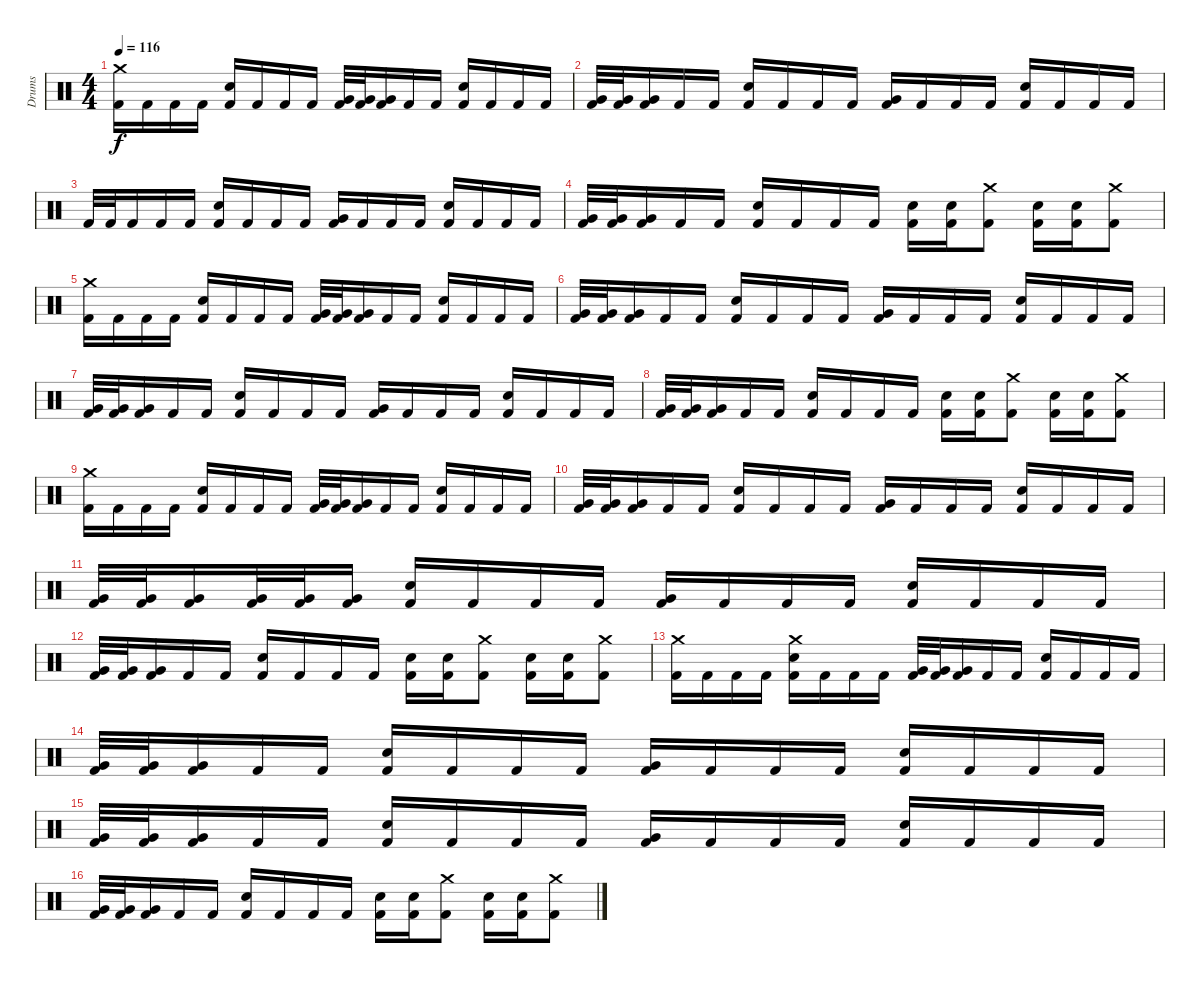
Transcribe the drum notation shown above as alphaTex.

\track ("Drums" "Drums") {instrument percussion}
\staff {score}
\articulation defaults
\ts (4 4)
\tempo 116
\clef neutral
\ks c
("Crash medium (hit)" "Kick (hit) 2").16{dy f} "Kick (hit) 2".16 "Kick (hit) 2".16 "Kick (hit) 2".16 ("Electric Snare (hit)" "Kick (hit) 2").16 "Kick (hit) 2".16 "Kick (hit) 2".16 "Kick (hit) 2".16 ("Very Low Tom (hit)" "Kick (hit) 2").32 ("Very Low Tom (hit)" "Kick (hit) 2").32 ("Very Low Tom (hit)" "Kick (hit) 2").16 "Kick (hit) 2".16 "Kick (hit) 2".16 ("Electric Snare (hit)" "Kick (hit) 2").16 "Kick (hit) 2".16 "Kick (hit) 2".16 "Kick (hit) 2".16 |
("Very Low Tom (hit)" "Kick (hit) 2").32 ("Very Low Tom (hit)" "Kick (hit) 2").32 ("Very Low Tom (hit)" "Kick (hit) 2").16 "Kick (hit) 2".16 "Kick (hit) 2".16 ("Electric Snare (hit)" "Kick (hit) 2").16 "Kick (hit) 2".16 "Kick (hit) 2".16 "Kick (hit) 2".16 ("Very Low Tom (hit)" "Kick (hit) 2").16 "Kick (hit) 2".16 "Kick (hit) 2".16 "Kick (hit) 2".16 ("Electric Snare (hit)" "Kick (hit) 2").16 "Kick (hit) 2".16 "Kick (hit) 2".16 "Kick (hit) 2".16 |
"Kick (hit) 2".32 "Kick (hit) 2".32 "Kick (hit) 2".16 "Kick (hit) 2".16 "Kick (hit) 2".16 ("Electric Snare (hit)" "Kick (hit) 2").16 "Kick (hit) 2".16 "Kick (hit) 2".16 "Kick (hit) 2".16 ("Very Low Tom (hit)" "Kick (hit) 2").16 "Kick (hit) 2".16 "Kick (hit) 2".16 "Kick (hit) 2".16 ("Electric Snare (hit)" "Kick (hit) 2").16 "Kick (hit) 2".16 "Kick (hit) 2".16 "Kick (hit) 2".16 |
("Very Low Tom (hit)" "Kick (hit) 2").32 ("Very Low Tom (hit)" "Kick (hit) 2").32 ("Very Low Tom (hit)" "Kick (hit) 2").16 "Kick (hit) 2".16 "Kick (hit) 2".16 ("Electric Snare (hit)" "Kick (hit) 2").16 "Kick (hit) 2".16 "Kick (hit) 2".16 "Kick (hit) 2".16 ("Electric Snare (hit)" "Kick (hit) 2").16 ("Electric Snare (hit)" "Kick (hit) 2").16 ("Crash medium (hit)" "Kick (hit) 2").8 ("Electric Snare (hit)" "Kick (hit) 2").16 ("Electric Snare (hit)" "Kick (hit) 2").16 ("Crash medium (hit)" "Kick (hit) 2").8 |
("Crash medium (hit)" "Kick (hit) 2").16 "Kick (hit) 2".16 "Kick (hit) 2".16 "Kick (hit) 2".16 ("Electric Snare (hit)" "Kick (hit) 2").16 "Kick (hit) 2".16 "Kick (hit) 2".16 "Kick (hit) 2".16 ("Very Low Tom (hit)" "Kick (hit) 2").32 ("Very Low Tom (hit)" "Kick (hit) 2").32 ("Very Low Tom (hit)" "Kick (hit) 2").16 "Kick (hit) 2".16 "Kick (hit) 2".16 ("Electric Snare (hit)" "Kick (hit) 2").16 "Kick (hit) 2".16 "Kick (hit) 2".16 "Kick (hit) 2".16 |
("Very Low Tom (hit)" "Kick (hit) 2").32 ("Very Low Tom (hit)" "Kick (hit) 2").32 ("Very Low Tom (hit)" "Kick (hit) 2").16 "Kick (hit) 2".16 "Kick (hit) 2".16 ("Electric Snare (hit)" "Kick (hit) 2").16 "Kick (hit) 2".16 "Kick (hit) 2".16 "Kick (hit) 2".16 ("Very Low Tom (hit)" "Kick (hit) 2").16 "Kick (hit) 2".16 "Kick (hit) 2".16 "Kick (hit) 2".16 ("Electric Snare (hit)" "Kick (hit) 2").16 "Kick (hit) 2".16 "Kick (hit) 2".16 "Kick (hit) 2".16 |
("Very Low Tom (hit)" "Kick (hit) 2").32 ("Very Low Tom (hit)" "Kick (hit) 2").32 ("Very Low Tom (hit)" "Kick (hit) 2").16 "Kick (hit) 2".16 "Kick (hit) 2".16 ("Electric Snare (hit)" "Kick (hit) 2").16 "Kick (hit) 2".16 "Kick (hit) 2".16 "Kick (hit) 2".16 ("Very Low Tom (hit)" "Kick (hit) 2").16 "Kick (hit) 2".16 "Kick (hit) 2".16 "Kick (hit) 2".16 ("Electric Snare (hit)" "Kick (hit) 2").16 "Kick (hit) 2".16 "Kick (hit) 2".16 "Kick (hit) 2".16 |
("Very Low Tom (hit)" "Kick (hit) 2").32 ("Very Low Tom (hit)" "Kick (hit) 2").32 ("Very Low Tom (hit)" "Kick (hit) 2").16 "Kick (hit) 2".16 "Kick (hit) 2".16 ("Electric Snare (hit)" "Kick (hit) 2").16 "Kick (hit) 2".16 "Kick (hit) 2".16 "Kick (hit) 2".16 ("Electric Snare (hit)" "Kick (hit) 2").16 ("Electric Snare (hit)" "Kick (hit) 2").16 ("Crash medium (hit)" "Kick (hit) 2").8 ("Electric Snare (hit)" "Kick (hit) 2").16 ("Electric Snare (hit)" "Kick (hit) 2").16 ("Crash medium (hit)" "Kick (hit) 2").8 |
("Crash medium (hit)" "Kick (hit) 2").16 "Kick (hit) 2".16 "Kick (hit) 2".16 "Kick (hit) 2".16 ("Electric Snare (hit)" "Kick (hit) 2").16 "Kick (hit) 2".16 "Kick (hit) 2".16 "Kick (hit) 2".16 ("Very Low Tom (hit)" "Kick (hit) 2").32 ("Very Low Tom (hit)" "Kick (hit) 2").32 ("Very Low Tom (hit)" "Kick (hit) 2").16 "Kick (hit) 2".16 "Kick (hit) 2".16 ("Electric Snare (hit)" "Kick (hit) 2").16 "Kick (hit) 2".16 "Kick (hit) 2".16 "Kick (hit) 2".16 |
("Very Low Tom (hit)" "Kick (hit) 2").32 ("Very Low Tom (hit)" "Kick (hit) 2").32 ("Very Low Tom (hit)" "Kick (hit) 2").16 "Kick (hit) 2".16 "Kick (hit) 2".16 ("Electric Snare (hit)" "Kick (hit) 2").16 "Kick (hit) 2".16 "Kick (hit) 2".16 "Kick (hit) 2".16 ("Very Low Tom (hit)" "Kick (hit) 2").16 "Kick (hit) 2".16 "Kick (hit) 2".16 "Kick (hit) 2".16 ("Electric Snare (hit)" "Kick (hit) 2").16 "Kick (hit) 2".16 "Kick (hit) 2".16 "Kick (hit) 2".16 |
("Very Low Tom (hit)" "Kick (hit) 2").32 ("Very Low Tom (hit)" "Kick (hit) 2").32 ("Very Low Tom (hit)" "Kick (hit) 2").16 ("Very Low Tom (hit)" "Kick (hit) 2").32 ("Very Low Tom (hit)" "Kick (hit) 2").32 ("Very Low Tom (hit)" "Kick (hit) 2").16 ("Electric Snare (hit)" "Kick (hit) 2").16 "Kick (hit) 2".16 "Kick (hit) 2".16 "Kick (hit) 2".16 ("Very Low Tom (hit)" "Kick (hit) 2").16 "Kick (hit) 2".16 "Kick (hit) 2".16 "Kick (hit) 2".16 ("Electric Snare (hit)" "Kick (hit) 2").16 "Kick (hit) 2".16 "Kick (hit) 2".16 "Kick (hit) 2".16 |
("Very Low Tom (hit)" "Kick (hit) 2").32 ("Very Low Tom (hit)" "Kick (hit) 2").32 ("Very Low Tom (hit)" "Kick (hit) 2").16 "Kick (hit) 2".16 "Kick (hit) 2".16 ("Electric Snare (hit)" "Kick (hit) 2").16 "Kick (hit) 2".16 "Kick (hit) 2".16 "Kick (hit) 2".16 ("Electric Snare (hit)" "Kick (hit) 2").16 ("Electric Snare (hit)" "Kick (hit) 2").16 ("Crash medium (hit)" "Kick (hit) 2").8 ("Electric Snare (hit)" "Kick (hit) 2").16 ("Electric Snare (hit)" "Kick (hit) 2").16 ("Crash medium (hit)" "Kick (hit) 2").8 |
("Crash medium (hit)" "Kick (hit) 2").16 "Kick (hit) 2".16 "Kick (hit) 2".16 "Kick (hit) 2".16 ("Crash medium (hit)" "Electric Snare (hit)" "Kick (hit) 2").16 "Kick (hit) 2".16 "Kick (hit) 2".16 "Kick (hit) 2".16 ("Very Low Tom (hit)" "Kick (hit) 2").32 ("Very Low Tom (hit)" "Kick (hit) 2").32 ("Very Low Tom (hit)" "Kick (hit) 2").16 "Kick (hit) 2".16 "Kick (hit) 2".16 ("Electric Snare (hit)" "Kick (hit) 2").16 "Kick (hit) 2".16 "Kick (hit) 2".16 "Kick (hit) 2".16 |
("Very Low Tom (hit)" "Kick (hit) 2").32 ("Very Low Tom (hit)" "Kick (hit) 2").32 ("Very Low Tom (hit)" "Kick (hit) 2").16 "Kick (hit) 2".16 "Kick (hit) 2".16 ("Electric Snare (hit)" "Kick (hit) 2").16 "Kick (hit) 2".16 "Kick (hit) 2".16 "Kick (hit) 2".16 ("Very Low Tom (hit)" "Kick (hit) 2").16 "Kick (hit) 2".16 "Kick (hit) 2".16 "Kick (hit) 2".16 ("Electric Snare (hit)" "Kick (hit) 2").16 "Kick (hit) 2".16 "Kick (hit) 2".16 "Kick (hit) 2".16 |
("Very Low Tom (hit)" "Kick (hit) 2").32 ("Very Low Tom (hit)" "Kick (hit) 2").32 ("Very Low Tom (hit)" "Kick (hit) 2").16 "Kick (hit) 2".16 "Kick (hit) 2".16 ("Electric Snare (hit)" "Kick (hit) 2").16 "Kick (hit) 2".16 "Kick (hit) 2".16 "Kick (hit) 2".16 ("Very Low Tom (hit)" "Kick (hit) 2").16 "Kick (hit) 2".16 "Kick (hit) 2".16 "Kick (hit) 2".16 ("Electric Snare (hit)" "Kick (hit) 2").16 "Kick (hit) 2".16 "Kick (hit) 2".16 "Kick (hit) 2".16 |
("Very Low Tom (hit)" "Kick (hit) 2").32 ("Very Low Tom (hit)" "Kick (hit) 2").32 ("Very Low Tom (hit)" "Kick (hit) 2").16 "Kick (hit) 2".16 "Kick (hit) 2".16 ("Electric Snare (hit)" "Kick (hit) 2").16 "Kick (hit) 2".16 "Kick (hit) 2".16 "Kick (hit) 2".16 ("Electric Snare (hit)" "Kick (hit) 2").16 ("Electric Snare (hit)" "Kick (hit) 2").16 ("Crash medium (hit)" "Kick (hit) 2").8 ("Electric Snare (hit)" "Kick (hit) 2").16 ("Electric Snare (hit)" "Kick (hit) 2").16 ("Crash medium (hit)" "Kick (hit) 2").8
